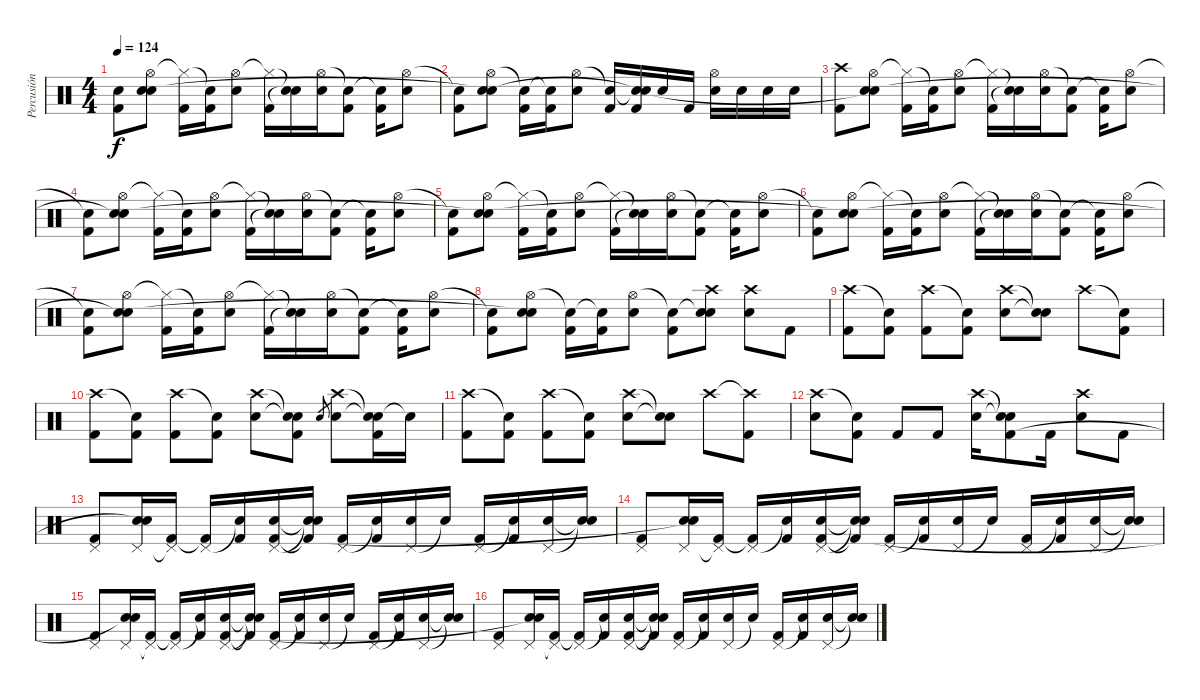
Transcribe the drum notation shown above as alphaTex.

\track ("Percusión" "Percusión") {instrument percussion}
\staff {score}
\articulation defaults
\ts (4 4)
\tempo 124
\clef neutral
\ks c
("Snare (hit)"{t} "Kick (hit) 2").8{dy f} ("Hi-Hat (open)" "Snare (hit) 2" "Snare (hit)"{t}).8 ("Hi-Hat (closed)"{t} "Kick (hit) 2").16 ("Snare (hit)"{t} "Kick (hit) 2").16 ("Hi-Hat (open)" "Snare (hit) 2").8 ("Hi-Hat (closed)"{t} "Kick (hit) 2").16 ("Snare (hit)"{t} "Snare (hit)"{t}).16 ("Hi-Hat (open)" "Snare (hit) 2").16 ("Snare (hit)"{t} "Kick (hit) 2").8 ("Snare (hit)"{t} "Kick (hit) 2").16 ("Hi-Hat (open)" "Snare (hit) 2").8 |
("Snare (hit)"{t} "Kick (hit) 2").8 ("Hi-Hat (open)" "Snare (hit) 2" "Snare (hit)"{t}).8 ("Snare (hit)"{t} "Kick (hit) 2").16 ("Snare (hit)"{t} "Kick (hit) 2").16 ("Hi-Hat (open)" "Snare (hit) 2").8 ("Snare (hit)"{t} "Kick (hit) 2").16 ("Snare (hit)"{t} "Kick (hit) 2" "Snare (hit)"{t}).16 "Snare (hit) 2".16 "Kick (hit) 2".16 ("Hi-Hat (open)" "Snare (hit) 2").16 "Snare (hit) 2".16 "Snare (hit) 2".16 "Snare (hit) 2".16 |
("Crash high (hit)" "Kick (hit) 2").8 ("Hi-Hat (open)" "Snare (hit) 2" "Snare (hit)"{t}).8 ("Hi-Hat (closed)"{t} "Kick (hit) 2").16 ("Snare (hit)"{t} "Kick (hit) 2").16 ("Hi-Hat (open)" "Snare (hit) 2").8 ("Hi-Hat (closed)"{t} "Kick (hit) 2").16 ("Snare (hit)"{t} "Snare (hit)"{t}).16 ("Hi-Hat (open)" "Snare (hit) 2").16 ("Snare (hit)"{t} "Kick (hit) 2").8 ("Snare (hit)"{t} "Kick (hit) 2").16 ("Hi-Hat (open)" "Snare (hit) 2").8 |
("Snare (hit)"{t} "Kick (hit) 2").8 ("Hi-Hat (open)" "Snare (hit) 2" "Snare (hit)"{t}).8 ("Hi-Hat (closed)"{t} "Kick (hit) 2").16 ("Snare (hit)"{t} "Kick (hit) 2").16 ("Hi-Hat (open)" "Snare (hit) 2").8 ("Hi-Hat (closed)"{t} "Kick (hit) 2").16 ("Snare (hit)"{t} "Snare (hit)"{t}).16 ("Hi-Hat (open)" "Snare (hit) 2").16 ("Snare (hit)"{t} "Kick (hit) 2").8 ("Snare (hit)"{t} "Kick (hit) 2").16 ("Hi-Hat (open)" "Snare (hit) 2").8 |
("Snare (hit)"{t} "Kick (hit) 2").8 ("Hi-Hat (open)" "Snare (hit) 2" "Snare (hit)"{t}).8 ("Hi-Hat (closed)"{t} "Kick (hit) 2").16 ("Snare (hit)"{t} "Kick (hit) 2").16 ("Hi-Hat (open)" "Snare (hit) 2").8 ("Hi-Hat (closed)"{t} "Kick (hit) 2").16 ("Snare (hit)"{t} "Snare (hit)"{t}).16 ("Hi-Hat (open)" "Snare (hit) 2").16 ("Snare (hit)"{t} "Kick (hit) 2").8 ("Snare (hit)"{t} "Kick (hit) 2").16 ("Hi-Hat (open)" "Snare (hit) 2").8 |
("Snare (hit)"{t} "Kick (hit) 2").8 ("Hi-Hat (open)" "Snare (hit) 2" "Snare (hit)"{t}).8 ("Hi-Hat (closed)"{t} "Kick (hit) 2").16 ("Snare (hit)"{t} "Kick (hit) 2").16 ("Hi-Hat (open)" "Snare (hit) 2").8 ("Hi-Hat (closed)"{t} "Kick (hit) 2").16 ("Snare (hit)"{t} "Snare (hit)"{t}).16 ("Hi-Hat (open)" "Snare (hit) 2").16 ("Snare (hit)"{t} "Kick (hit) 2").8 ("Snare (hit)"{t} "Kick (hit) 2").16 ("Hi-Hat (open)" "Snare (hit) 2").8 |
("Snare (hit)"{t} "Kick (hit) 2").8 ("Hi-Hat (open)" "Snare (hit) 2" "Snare (hit)"{t}).8 ("Hi-Hat (closed)"{t} "Kick (hit) 2").16 ("Snare (hit)"{t} "Kick (hit) 2").16 ("Hi-Hat (open)" "Snare (hit) 2").8 ("Hi-Hat (closed)"{t} "Kick (hit) 2").16 ("Snare (hit)"{t} "Snare (hit)"{t}).16 ("Hi-Hat (open)" "Snare (hit) 2").16 ("Snare (hit)"{t} "Kick (hit) 2").8 ("Snare (hit)"{t} "Kick (hit) 2").16 ("Hi-Hat (open)" "Snare (hit) 2").8 |
("Snare (hit)"{t} "Kick (hit) 2").8 ("Hi-Hat (open)" "Snare (hit) 2" "Snare (hit)"{t}).8 ("Snare (hit)"{t} "Kick (hit) 2").16 ("Snare (hit)"{t} "Kick (hit) 2").16 ("Hi-Hat (open)" "Snare (hit) 2").8 ("Snare (hit)"{t} "Kick (hit) 2").8 ("Snare (hit)"{t} "Crash high (hit)" "Snare (hit) 2").8 ("Crash high (hit)" "Snare (hit) 2").8 "Kick (hit) 2".8 |
("Crash high (hit)" "Kick (hit) 2").8 ("Snare (hit)"{t} "Kick (hit) 2").8 ("Crash high (hit)" "Kick (hit) 2").8 ("Snare (hit)"{t} "Kick (hit) 2").8 ("Crash high (hit)" "Snare (hit) 2").8 ("Snare (hit)"{t} "Snare (hit)"{t}).8 "Crash high (hit)".8 ("Snare (hit)"{t} "Kick (hit) 2").8 |
("Crash high (hit)" "Kick (hit) 2").8 ("Snare (hit)"{t} "Kick (hit) 2").8 ("Crash high (hit)" "Kick (hit) 2").8 ("Snare (hit)"{t} "Kick (hit) 2").8 ("Crash high (hit)" "Snare (hit) 2").8 ("Snare (hit)"{t} "Snare (hit) 2"{t} "Kick (hit) 2").8 "Snare (hit) 2"{sl}.8{gr} ("Crash high (hit)" "Snare (hit) 2").8 ("Snare (hit)"{t} "Snare (hit) 2"{t} "Kick (hit) 2").16 "Snare (hit)"{t}.16 |
("Crash high (hit)" "Kick (hit) 2").8 ("Snare (hit)"{t} "Kick (hit) 2").8 ("Crash high (hit)" "Kick (hit) 2").8 ("Snare (hit)"{t} "Kick (hit) 2").8 ("Crash high (hit)" "Snare (hit) 2").8 ("Snare (hit)"{t} "Snare (hit)"{t}).8 "Crash high (hit)".8 ("Crash high (hit)"{t} "Kick (hit) 2").8 |
("Crash high (hit)" "Snare (hit) 2").8 ("Snare (hit)"{t} "Kick (hit) 2").8 "Kick (hit) 2".8 "Kick (hit) 2".8 ("Crash high (hit)" "Snare (hit) 2").16 ("Snare (hit)"{t} "Snare (hit)"{t} "Kick (hit) 2").8 "Kick (hit) 2".16 ("Crash high (hit)" "Snare (hit) 2").8 "Kick (hit) 2".8 |
("Pedal Hi-Hat (hit)" "Kick (hit) 2").8 ("Pedal Hi-Hat (hit)" "Snare (hit) 2" "Snare (hit)"{t}).16 ("Pedal Hi-Hat (hit)"{t} "Kick (hit) 2").16 ("Pedal Hi-Hat (hit)" "Kick (hit) 2"{t}).16 ("Snare (hit)"{t} "Kick (hit) 2").16 ("Pedal Hi-Hat (hit)" "Snare (hit) 2" "Kick (hit) 2").16 ("Snare (hit)"{t} "Snare (hit)"{t} "Kick (hit) 2"{t}).16 ("Pedal Hi-Hat (hit)" "Kick (hit) 2").16 ("Snare (hit)"{t} "Kick (hit) 2").16 ("Pedal Hi-Hat (hit)" "Snare (hit) 2").16 "Snare (hit)"{t}.16 ("Pedal Hi-Hat (hit)" "Kick (hit) 2").16 ("Snare (hit)"{t} "Kick (hit) 2").16 ("Pedal Hi-Hat (hit)" "Snare (hit) 2").16 ("Snare (hit)"{t} "Snare (hit)"{t}).16 |
("Pedal Hi-Hat (hit)" "Kick (hit) 2").8 ("Pedal Hi-Hat (hit)" "Snare (hit) 2" "Snare (hit)"{t}).16 ("Pedal Hi-Hat (hit)"{t} "Kick (hit) 2").16 ("Pedal Hi-Hat (hit)" "Kick (hit) 2"{t}).16 ("Snare (hit)"{t} "Kick (hit) 2").16 ("Pedal Hi-Hat (hit)" "Snare (hit) 2" "Kick (hit) 2").16 ("Snare (hit)"{t} "Snare (hit)"{t} "Kick (hit) 2"{t}).16 ("Pedal Hi-Hat (hit)" "Kick (hit) 2").16 ("Snare (hit)"{t} "Kick (hit) 2").16 ("Pedal Hi-Hat (hit)" "Snare (hit) 2").16 "Snare (hit)"{t}.16 ("Pedal Hi-Hat (hit)" "Kick (hit) 2").16 ("Snare (hit)"{t} "Kick (hit) 2").16 ("Pedal Hi-Hat (hit)" "Snare (hit) 2").16 ("Snare (hit)"{t} "Snare (hit)"{t}).16 |
("Pedal Hi-Hat (hit)" "Kick (hit) 2").8 ("Pedal Hi-Hat (hit)" "Snare (hit) 2" "Snare (hit)"{t}).16 ("Pedal Hi-Hat (hit)"{t} "Kick (hit) 2").16 ("Pedal Hi-Hat (hit)" "Kick (hit) 2"{t}).16 ("Snare (hit)"{t} "Kick (hit) 2").16 ("Pedal Hi-Hat (hit)" "Snare (hit) 2" "Kick (hit) 2").16 ("Snare (hit)"{t} "Snare (hit)"{t} "Kick (hit) 2"{t}).16 ("Pedal Hi-Hat (hit)" "Kick (hit) 2").16 ("Snare (hit)"{t} "Kick (hit) 2").16 ("Pedal Hi-Hat (hit)" "Snare (hit) 2").16 "Snare (hit)"{t}.16 ("Pedal Hi-Hat (hit)" "Kick (hit) 2").16 ("Snare (hit)"{t} "Kick (hit) 2").16 ("Pedal Hi-Hat (hit)" "Snare (hit) 2").16 ("Snare (hit)"{t} "Snare (hit)"{t}).16 |
("Pedal Hi-Hat (hit)" "Kick (hit) 2").8 ("Pedal Hi-Hat (hit)" "Snare (hit) 2" "Snare (hit)"{t}).16 ("Pedal Hi-Hat (hit)"{t} "Kick (hit) 2").16 ("Pedal Hi-Hat (hit)" "Kick (hit) 2"{t}).16 ("Snare (hit)"{t} "Kick (hit) 2").16 ("Pedal Hi-Hat (hit)" "Snare (hit) 2" "Kick (hit) 2").16 ("Snare (hit)"{t} "Snare (hit)"{t} "Kick (hit) 2"{t}).16 ("Pedal Hi-Hat (hit)" "Kick (hit) 2").16 ("Snare (hit)"{t} "Kick (hit) 2").16 ("Pedal Hi-Hat (hit)" "Snare (hit) 2").16 "Snare (hit)"{t}.16 ("Pedal Hi-Hat (hit)" "Kick (hit) 2").16 ("Snare (hit)"{t} "Kick (hit) 2").16 ("Pedal Hi-Hat (hit)" "Snare (hit) 2").16 ("Snare (hit)"{t} "Snare (hit)"{t}).16
